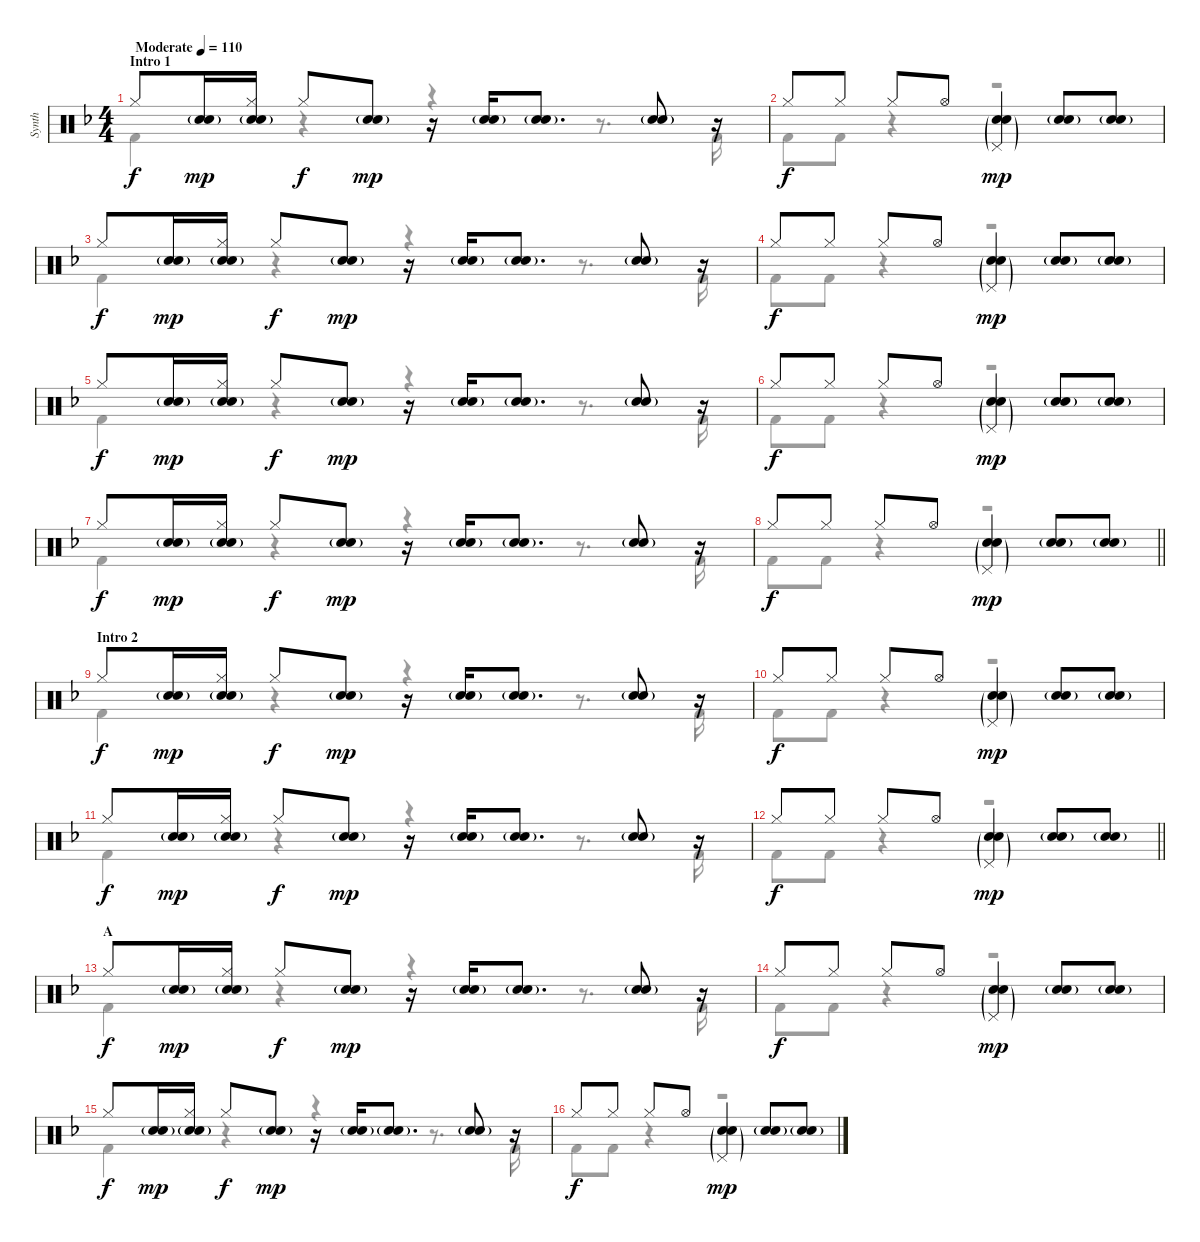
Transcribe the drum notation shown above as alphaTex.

\track ("Synth" "Synth") {instrument percussion}
\staff {score}
\articulation defaults
\voice
\ts (4 4)
\section ("" "Intro 1")
\tempo (110 "Moderate")
\clef neutral
\ks dminor "Hi-Hat (closed)".8{dy f}
("Electric Snare (hit)"{g} "Snare (hit) 2").16{dy mp} ("Hi-Hat (closed)" "Electric Snare (hit)"{g} "Snare (hit) 2").16 "Hi-Hat (closed)".8{dy f} ("Electric Snare (hit)"{g} "Snare (hit) 2").8{dy mp} r.16 ("Electric Snare (hit)"{g} "Snare (hit) 2").16 ("Electric Snare (hit)"{g} "Snare (hit) 2").8{d} ("Electric Snare (hit)"{g} "Snare (hit) 2").8 r.16 |
"Hi-Hat (closed)".8{dy f} "Hi-Hat (closed)".8 "Hi-Hat (closed)".8 "Hi-Hat (open)".8 ("Pedal Hi-Hat (hit)"{g} "Snare (hit) 2" "Electric Snare (hit)"{g}).4{dy mp} ("Snare (hit) 2" "Electric Snare (hit)"{g}).8 ("Snare (hit) 2" "Electric Snare (hit)"{g}).8 |
"Hi-Hat (closed)".8{dy f} ("Electric Snare (hit)"{g} "Snare (hit) 2").16{dy mp} ("Hi-Hat (closed)" "Electric Snare (hit)"{g} "Snare (hit) 2").16 "Hi-Hat (closed)".8{dy f} ("Electric Snare (hit)"{g} "Snare (hit) 2").8{dy mp} r.16 ("Electric Snare (hit)"{g} "Snare (hit) 2").16 ("Electric Snare (hit)"{g} "Snare (hit) 2").8{d} ("Electric Snare (hit)"{g} "Snare (hit) 2").8 r.16 |
"Hi-Hat (closed)".8{dy f} "Hi-Hat (closed)".8 "Hi-Hat (closed)".8 "Hi-Hat (open)".8 ("Pedal Hi-Hat (hit)"{g} "Snare (hit) 2" "Electric Snare (hit)"{g}).4{dy mp} ("Snare (hit) 2" "Electric Snare (hit)"{g}).8 ("Snare (hit) 2" "Electric Snare (hit)"{g}).8 |
"Hi-Hat (closed)".8{dy f} ("Electric Snare (hit)"{g} "Snare (hit) 2").16{dy mp} ("Hi-Hat (closed)" "Electric Snare (hit)"{g} "Snare (hit) 2").16 "Hi-Hat (closed)".8{dy f} ("Electric Snare (hit)"{g} "Snare (hit) 2").8{dy mp} r.16 ("Electric Snare (hit)"{g} "Snare (hit) 2").16 ("Electric Snare (hit)"{g} "Snare (hit) 2").8{d} ("Electric Snare (hit)"{g} "Snare (hit) 2").8 r.16 |
"Hi-Hat (closed)".8{dy f} "Hi-Hat (closed)".8 "Hi-Hat (closed)".8 "Hi-Hat (open)".8 ("Pedal Hi-Hat (hit)"{g} "Snare (hit) 2" "Electric Snare (hit)"{g}).4{dy mp} ("Snare (hit) 2" "Electric Snare (hit)"{g}).8 ("Snare (hit) 2" "Electric Snare (hit)"{g}).8 |
"Hi-Hat (closed)".8{dy f} ("Electric Snare (hit)"{g} "Snare (hit) 2").16{dy mp} ("Hi-Hat (closed)" "Electric Snare (hit)"{g} "Snare (hit) 2").16 "Hi-Hat (closed)".8{dy f} ("Electric Snare (hit)"{g} "Snare (hit) 2").8{dy mp} r.16 ("Electric Snare (hit)"{g} "Snare (hit) 2").16 ("Electric Snare (hit)"{g} "Snare (hit) 2").8{d} ("Electric Snare (hit)"{g} "Snare (hit) 2").8 r.16 |
\barLineRight lightlight "Hi-Hat (closed)".8{dy f} "Hi-Hat (closed)".8 "Hi-Hat (closed)".8 "Hi-Hat (open)".8
("Pedal Hi-Hat (hit)"{g} "Snare (hit) 2" "Electric Snare (hit)"{g}).4{dy mp} ("Snare (hit) 2" "Electric Snare (hit)"{g}).8 ("Snare (hit) 2" "Electric Snare (hit)"{g}).8 |
\section ("" "Intro 2")
"Hi-Hat (closed)".8{dy f} ("Electric Snare (hit)"{g} "Snare (hit) 2").16{dy mp} ("Hi-Hat (closed)" "Electric Snare (hit)"{g} "Snare (hit) 2").16 "Hi-Hat (closed)".8{dy f} ("Electric Snare (hit)"{g} "Snare (hit) 2").8{dy mp} r.16 ("Electric Snare (hit)"{g} "Snare (hit) 2").16 ("Electric Snare (hit)"{g} "Snare (hit) 2").8{d} ("Electric Snare (hit)"{g} "Snare (hit) 2").8 r.16 |
"Hi-Hat (closed)".8{dy f} "Hi-Hat (closed)".8 "Hi-Hat (closed)".8 "Hi-Hat (open)".8 ("Pedal Hi-Hat (hit)"{g} "Snare (hit) 2" "Electric Snare (hit)"{g}).4{dy mp} ("Snare (hit) 2" "Electric Snare (hit)"{g}).8 ("Snare (hit) 2" "Electric Snare (hit)"{g}).8 |
"Hi-Hat (closed)".8{dy f} ("Electric Snare (hit)"{g} "Snare (hit) 2").16{dy mp} ("Hi-Hat (closed)" "Electric Snare (hit)"{g} "Snare (hit) 2").16 "Hi-Hat (closed)".8{dy f} ("Electric Snare (hit)"{g} "Snare (hit) 2").8{dy mp} r.16 ("Electric Snare (hit)"{g} "Snare (hit) 2").16 ("Electric Snare (hit)"{g} "Snare (hit) 2").8{d} ("Electric Snare (hit)"{g} "Snare (hit) 2").8 r.16 |
\barLineRight lightlight "Hi-Hat (closed)".8{dy f} "Hi-Hat (closed)".8 "Hi-Hat (closed)".8 "Hi-Hat (open)".8
("Pedal Hi-Hat (hit)"{g} "Snare (hit) 2" "Electric Snare (hit)"{g}).4{dy mp} ("Snare (hit) 2" "Electric Snare (hit)"{g}).8 ("Snare (hit) 2" "Electric Snare (hit)"{g}).8 |
\section ("" "A")
"Hi-Hat (closed)".8{dy f} ("Electric Snare (hit)"{g} "Snare (hit) 2").16{dy mp} ("Hi-Hat (closed)" "Electric Snare (hit)"{g} "Snare (hit) 2").16 "Hi-Hat (closed)".8{dy f} ("Electric Snare (hit)"{g} "Snare (hit) 2").8{dy mp} r.16 ("Electric Snare (hit)"{g} "Snare (hit) 2").16 ("Electric Snare (hit)"{g} "Snare (hit) 2").8{d} ("Electric Snare (hit)"{g} "Snare (hit) 2").8 r.16 |
"Hi-Hat (closed)".8{dy f} "Hi-Hat (closed)".8 "Hi-Hat (closed)".8 "Hi-Hat (open)".8 ("Pedal Hi-Hat (hit)"{g} "Snare (hit) 2" "Electric Snare (hit)"{g}).4{dy mp} ("Snare (hit) 2" "Electric Snare (hit)"{g}).8 ("Snare (hit) 2" "Electric Snare (hit)"{g}).8 |
"Hi-Hat (closed)".8{dy f} ("Electric Snare (hit)"{g} "Snare (hit) 2").16{dy mp} ("Hi-Hat (closed)" "Electric Snare (hit)"{g} "Snare (hit) 2").16 "Hi-Hat (closed)".8{dy f} ("Electric Snare (hit)"{g} "Snare (hit) 2").8{dy mp} r.16 ("Electric Snare (hit)"{g} "Snare (hit) 2").16 ("Electric Snare (hit)"{g} "Snare (hit) 2").8{d} ("Electric Snare (hit)"{g} "Snare (hit) 2").8 r.16 |
"Hi-Hat (closed)".8{dy f} "Hi-Hat (closed)".8 "Hi-Hat (closed)".8 "Hi-Hat (open)".8 ("Pedal Hi-Hat (hit)"{g} "Snare (hit) 2" "Electric Snare (hit)"{g}).4{dy mp} ("Snare (hit) 2" "Electric Snare (hit)"{g}).8 ("Snare (hit) 2" "Electric Snare (hit)"{g}).8
\voice
\clef neutral
\ottava regular
\simile none
\ks dminor "Kick (hit) 2".4{dy f}
r.4 r.4 r.8{d} "Kick (hit) 2".16 |
"Kick (hit) 2".8 "Kick (hit) 2".8 r.4 r.2 |
"Kick (hit) 2".4 r.4 r.4 r.8{d} "Kick (hit) 2".16 |
"Kick (hit) 2".8 "Kick (hit) 2".8 r.4 r.2 |
"Kick (hit) 2".4 r.4 r.4 r.8{d} "Kick (hit) 2".16 |
"Kick (hit) 2".8 "Kick (hit) 2".8 r.4 r.2 |
"Kick (hit) 2".4 r.4 r.4 r.8{d} "Kick (hit) 2".16 |
\barLineRight lightlight "Kick (hit) 2".8 "Kick (hit) 2".8
r.4 r.2 |
"Kick (hit) 2".4 r.4 r.4 r.8{d} "Kick (hit) 2".16 |
"Kick (hit) 2".8 "Kick (hit) 2".8 r.4 r.2 |
"Kick (hit) 2".4 r.4 r.4 r.8{d} "Kick (hit) 2".16 |
\barLineRight lightlight "Kick (hit) 2".8 "Kick (hit) 2".8
r.4 r.2 |
"Kick (hit) 2".4 r.4 r.4 r.8{d} "Kick (hit) 2".16 |
"Kick (hit) 2".8 "Kick (hit) 2".8 r.4 r.2 |
"Kick (hit) 2".4 r.4 r.4 r.8{d} "Kick (hit) 2".16 |
"Kick (hit) 2".8 "Kick (hit) 2".8 r.4 r.2
